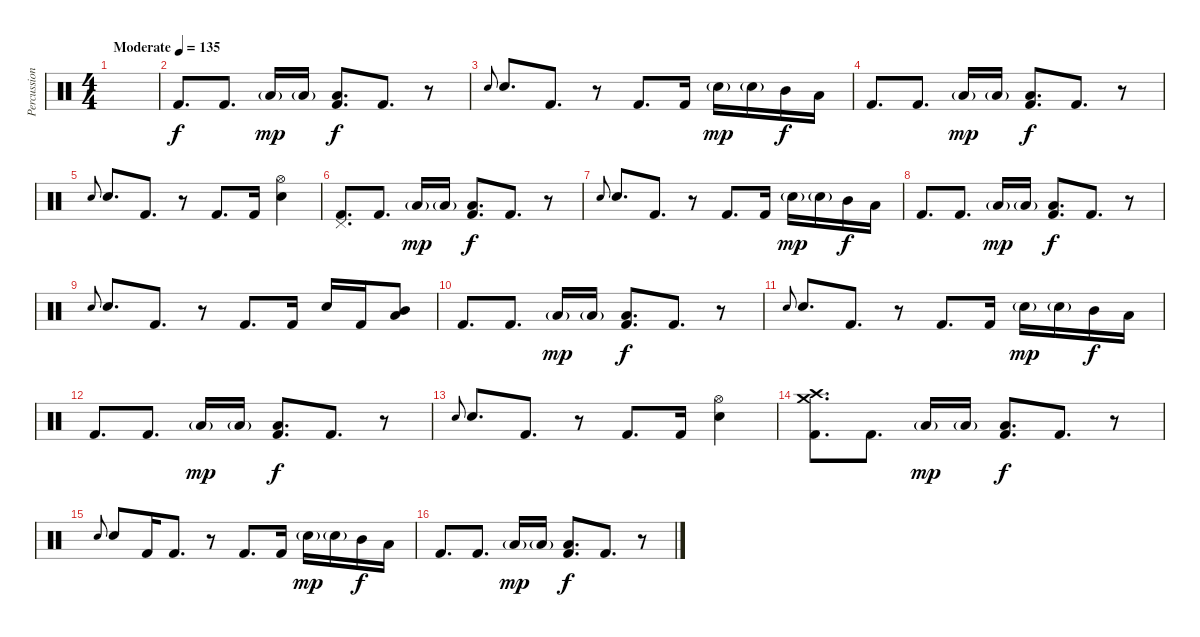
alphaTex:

\track ("Percussion" "Percussion") {instrument percussion}
\staff {score}
\articulation defaults
\ts (4 4)
\tempo (135 "Moderate")
\clef neutral
\ks c
|
"Kick (hit) 2".8{d} "Kick (hit) 2".8{d} "Low Floor Tom (hit)"{g}.16{dy mp} "Low Floor Tom (hit)"{g}.16 ("Low Floor Tom (hit)" "Kick (hit) 2").8{d dy f} "Kick (hit) 2".8{d} r.8 |
"Electric Snare (hit)".8{gr onbeat} "Electric Snare (hit)".8{d} "Kick (hit) 2".8{d} r.8 "Kick (hit) 2".8{d} "Kick (hit) 2".16 "Electric Snare (hit)"{g}.16{dy mp} "Electric Snare (hit)"{g}.16 "Mid Tom (hit)".16{dy f} "Low Floor Tom (hit)".16 |
"Kick (hit) 2".8{d} "Kick (hit) 2".8{d} "Low Floor Tom (hit)"{g}.16{dy mp} "Low Floor Tom (hit)"{g}.16 ("Low Floor Tom (hit)" "Kick (hit) 2").8{d dy f} "Kick (hit) 2".8{d} r.8 |
"Electric Snare (hit)".8{gr onbeat} "Electric Snare (hit)".8{d} "Kick (hit) 2".8{d} r.8 "Kick (hit) 2".8{d} "Kick (hit) 2".16 ("Hi-Hat (open)" "Electric Snare (hit)").4 |
("Pedal Hi-Hat (hit)" "Kick (hit) 2").8{d} "Kick (hit) 2".8{d} "Low Floor Tom (hit)"{g}.16{dy mp} "Low Floor Tom (hit)"{g}.16 ("Low Floor Tom (hit)" "Kick (hit) 2").8{d dy f} "Kick (hit) 2".8{d} r.8 |
"Electric Snare (hit)".8{gr onbeat} "Electric Snare (hit)".8{d} "Kick (hit) 2".8{d} r.8 "Kick (hit) 2".8{d} "Kick (hit) 2".16 "Electric Snare (hit)"{g}.16{dy mp} "Electric Snare (hit)"{g}.16 "Mid Tom (hit)".16{dy f} "Low Floor Tom (hit)".16 |
"Kick (hit) 2".8{d} "Kick (hit) 2".8{d} "Low Floor Tom (hit)"{g}.16{dy mp} "Low Floor Tom (hit)"{g}.16 ("Low Floor Tom (hit)" "Kick (hit) 2").8{d dy f} "Kick (hit) 2".8{d} r.8 |
"Electric Snare (hit)".8{gr onbeat} "Electric Snare (hit)".8{d} "Kick (hit) 2".8{d} r.8 "Kick (hit) 2".8{d} "Kick (hit) 2".16 "Electric Snare (hit)".16 "Kick (hit) 2".16 ("Mid Tom (hit)" "Low Floor Tom (hit)").8 |
"Kick (hit) 2".8{d} "Kick (hit) 2".8{d} "Low Floor Tom (hit)"{g}.16{dy mp} "Low Floor Tom (hit)"{g}.16 ("Low Floor Tom (hit)" "Kick (hit) 2").8{d dy f} "Kick (hit) 2".8{d} r.8 |
"Electric Snare (hit)".8{gr onbeat} "Electric Snare (hit)".8{d} "Kick (hit) 2".8{d} r.8 "Kick (hit) 2".8{d} "Kick (hit) 2".16 "Electric Snare (hit)"{g}.16{dy mp} "Electric Snare (hit)"{g}.16 "Mid Tom (hit)".16{dy f} "Low Floor Tom (hit)".16 |
"Kick (hit) 2".8{d} "Kick (hit) 2".8{d} "Low Floor Tom (hit)"{g}.16{dy mp} "Low Floor Tom (hit)"{g}.16 ("Low Floor Tom (hit)" "Kick (hit) 2").8{d dy f} "Kick (hit) 2".8{d} r.8 |
"Electric Snare (hit)".8{gr onbeat} "Electric Snare (hit)".8{d} "Kick (hit) 2".8{d} r.8 "Kick (hit) 2".8{d} "Kick (hit) 2".16 ("Hi-Hat (open)" "Electric Snare (hit)").4 |
("Crash high (hit)" "Crash medium (hit)" "Kick (hit) 2").8{d} "Kick (hit) 2".8{d} "Low Floor Tom (hit)"{g}.16{dy mp} "Low Floor Tom (hit)"{g}.16 ("Low Floor Tom (hit)" "Kick (hit) 2").8{d dy f} "Kick (hit) 2".8{d} r.8 |
"Electric Snare (hit)".8{gr onbeat} "Electric Snare (hit)".8 "Kick (hit) 2".16 "Kick (hit) 2".8{d} r.8 "Kick (hit) 2".8{d} "Kick (hit) 2".16 "Electric Snare (hit)"{g}.16{dy mp} "Electric Snare (hit)"{g}.16 "Mid Tom (hit)".16{dy f} "Low Floor Tom (hit)".16 |
"Kick (hit) 2".8{d} "Kick (hit) 2".8{d} "Low Floor Tom (hit)"{g}.16{dy mp} "Low Floor Tom (hit)"{g}.16 ("Low Floor Tom (hit)" "Kick (hit) 2").8{d dy f} "Kick (hit) 2".8{d} r.8
